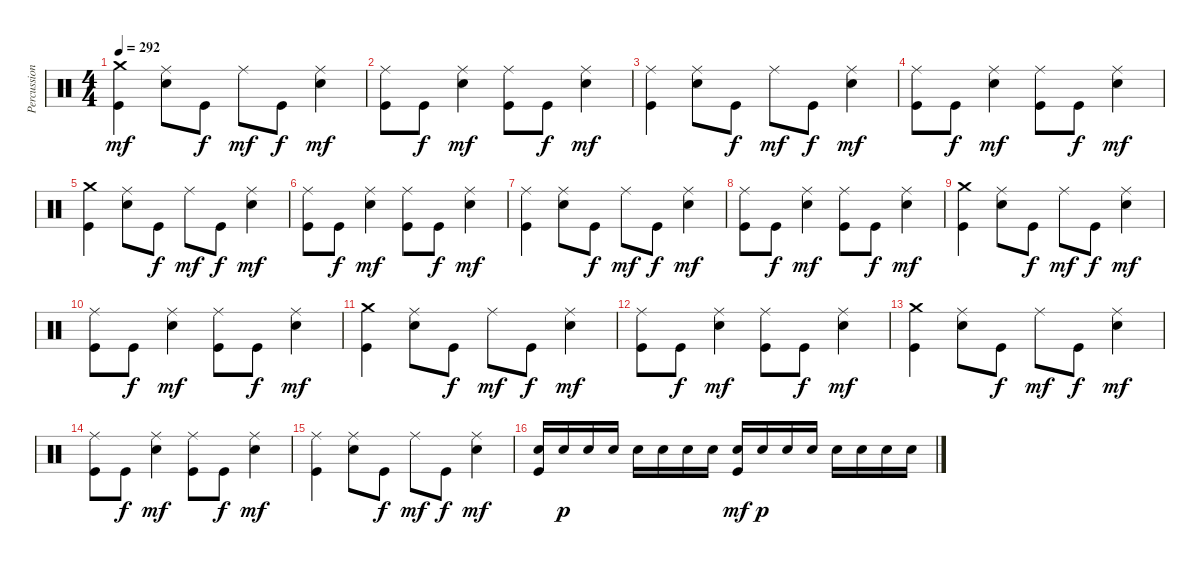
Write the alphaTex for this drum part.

\track ("Percussion" "Percussion") {instrument percussion}
\staff {score}
\articulation defaults
\ts (4 4)
\tempo 292
\clef neutral
\ks c
("Crash medium (hit)" "Kick (hit)").4{dy mf} ("Ride (middle)" "Electric Snare (hit)").8 "Kick (hit)".8{dy f} "Ride (middle)".8{dy mf} "Kick (hit)".8{dy f} ("Ride (middle)" "Electric Snare (hit)").4{dy mf} |
("Ride (middle)" "Kick (hit)").8 "Kick (hit)".8{dy f} ("Ride (middle)" "Electric Snare (hit)").4{dy mf} ("Ride (middle)" "Kick (hit)").8 "Kick (hit)".8{dy f} ("Ride (middle)" "Electric Snare (hit)").4{dy mf} |
("Ride (middle)" "Kick (hit)").4 ("Ride (middle)" "Electric Snare (hit)").8 "Kick (hit)".8{dy f} "Ride (middle)".8{dy mf} "Kick (hit)".8{dy f} ("Ride (middle)" "Electric Snare (hit)").4{dy mf} |
("Ride (middle)" "Kick (hit)").8 "Kick (hit)".8{dy f} ("Ride (middle)" "Electric Snare (hit)").4{dy mf} ("Ride (middle)" "Kick (hit)").8 "Kick (hit)".8{dy f} ("Ride (middle)" "Electric Snare (hit)").4{dy mf} |
("Crash medium (hit)" "Kick (hit)").4 ("Ride (middle)" "Electric Snare (hit)").8 "Kick (hit)".8{dy f} "Ride (middle)".8{dy mf} "Kick (hit)".8{dy f} ("Ride (middle)" "Electric Snare (hit)").4{dy mf} |
("Ride (middle)" "Kick (hit)").8 "Kick (hit)".8{dy f} ("Ride (middle)" "Electric Snare (hit)").4{dy mf} ("Ride (middle)" "Kick (hit)").8 "Kick (hit)".8{dy f} ("Ride (middle)" "Electric Snare (hit)").4{dy mf} |
("Ride (middle)" "Kick (hit)").4 ("Ride (middle)" "Electric Snare (hit)").8 "Kick (hit)".8{dy f} "Ride (middle)".8{dy mf} "Kick (hit)".8{dy f} ("Ride (middle)" "Electric Snare (hit)").4{dy mf} |
("Ride (middle)" "Kick (hit)").8 "Kick (hit)".8{dy f} ("Ride (middle)" "Electric Snare (hit)").4{dy mf} ("Ride (middle)" "Kick (hit)").8 "Kick (hit)".8{dy f} ("Ride (middle)" "Electric Snare (hit)").4{dy mf} |
("Crash medium (hit)" "Kick (hit)").4 ("Ride (middle)" "Electric Snare (hit)").8 "Kick (hit)".8{dy f} "Ride (middle)".8{dy mf} "Kick (hit)".8{dy f} ("Ride (middle)" "Electric Snare (hit)").4{dy mf} |
("Ride (middle)" "Kick (hit)").8 "Kick (hit)".8{dy f} ("Ride (middle)" "Electric Snare (hit)").4{dy mf} ("Ride (middle)" "Kick (hit)").8 "Kick (hit)".8{dy f} ("Ride (middle)" "Electric Snare (hit)").4{dy mf} |
("Crash medium (hit)" "Kick (hit)").4 ("Ride (middle)" "Electric Snare (hit)").8 "Kick (hit)".8{dy f} "Ride (middle)".8{dy mf} "Kick (hit)".8{dy f} ("Ride (middle)" "Electric Snare (hit)").4{dy mf} |
("Ride (middle)" "Kick (hit)").8 "Kick (hit)".8{dy f} ("Ride (middle)" "Electric Snare (hit)").4{dy mf} ("Ride (middle)" "Kick (hit)").8 "Kick (hit)".8{dy f} ("Ride (middle)" "Electric Snare (hit)").4{dy mf} |
("Crash medium (hit)" "Kick (hit)").4 ("Ride (middle)" "Electric Snare (hit)").8 "Kick (hit)".8{dy f} "Ride (middle)".8{dy mf} "Kick (hit)".8{dy f} ("Ride (middle)" "Electric Snare (hit)").4{dy mf} |
("Ride (middle)" "Kick (hit)").8 "Kick (hit)".8{dy f} ("Ride (middle)" "Electric Snare (hit)").4{dy mf} ("Ride (middle)" "Kick (hit)").8 "Kick (hit)".8{dy f} ("Ride (middle)" "Electric Snare (hit)").4{dy mf} |
("Ride (middle)" "Kick (hit)").4 ("Ride (middle)" "Electric Snare (hit)").8 "Kick (hit)".8{dy f} "Ride (middle)".8{dy mf} "Kick (hit)".8{dy f} ("Ride (middle)" "Electric Snare (hit)").4{dy mf} |
("Electric Snare (hit)" "Kick (hit)").16 "Electric Snare (hit)".16{dy p} "Electric Snare (hit)".16 "Electric Snare (hit)".16 "Electric Snare (hit)".16 "Electric Snare (hit)".16 "Electric Snare (hit)".16 "Electric Snare (hit)".16 ("Electric Snare (hit)" "Kick (hit)").16{dy mf} "Electric Snare (hit)".16{dy p} "Electric Snare (hit)".16 "Electric Snare (hit)".16 "Electric Snare (hit)".16 "Electric Snare (hit)".16 "Electric Snare (hit)".16 "Electric Snare (hit)".16
